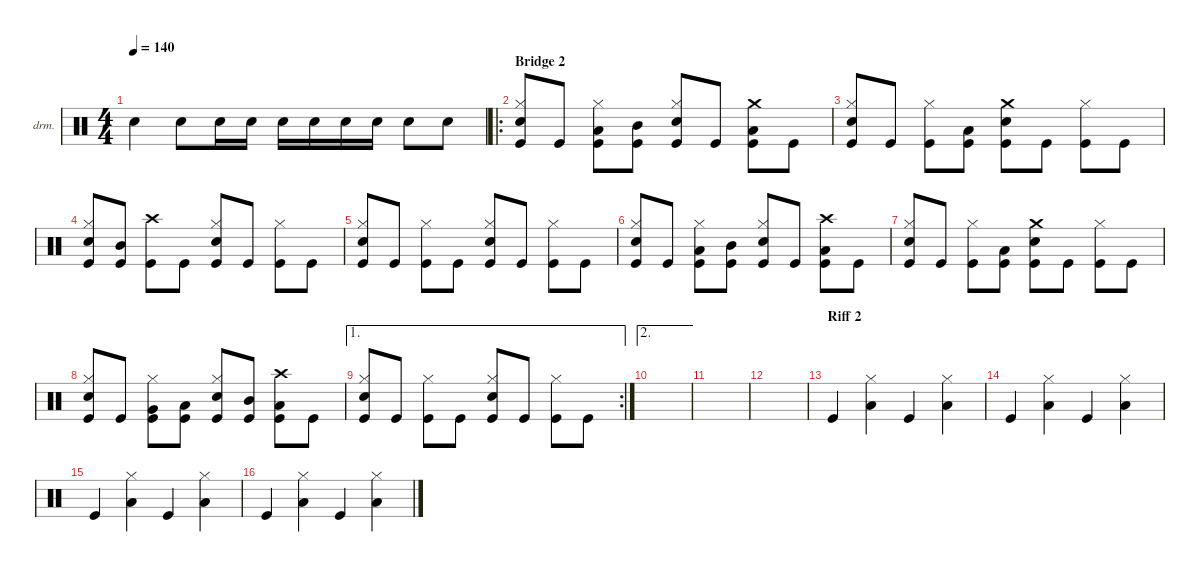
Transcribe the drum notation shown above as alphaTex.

\defaultSystemsLayout 4
\hideDynamics
\bracketExtendMode nobrackets
\firstSystemTrackNameOrientation horizontal
\otherSystemsTrackNameOrientation horizontal
\track ("Drumkit" "drm.") {instrument percussion}
\staff {score}
\articulation defaults
\ts (4 4)
\tempo 140
\clef neutral
\ks c "Snare (hit) 2".4{dy mf} "Snare (hit) 2".8 "Snare (hit) 2".16 "Snare (hit) 2".16 "Snare (hit) 2".16 "Snare (hit) 2".16 "Snare (hit) 2".16 "Snare (hit) 2".16 "Snare (hit) 2".8 "Snare (hit) 2".8
|
\ro
\section ("" "Bridge 2")
("Hi-Hat (closed)" "Kick (hit)" "Snare (hit) 2").8 "Kick (hit)".8 ("Kick (hit)" "Hi-Hat (closed)" "Low Tom (hit)").8 ("Kick (hit)" "Mid Tom (hit)").8 ("Kick (hit)" "Hi-Hat (closed)" "Snare (hit) 2").8 "Kick (hit)".8 ("Kick (hit)" "Low Tom (hit)" "Crash medium (hit)").8 "Kick (hit)".8 |
("Hi-Hat (closed)" "Kick (hit)" "Snare (hit) 2").8 "Kick (hit)".8 ("Kick (hit)" "Hi-Hat (closed)").8 ("Kick (hit)" "Low Tom (hit)").8 ("Kick (hit)" "Snare (hit) 2" "Crash medium (hit)").8 "Kick (hit)".8 ("Kick (hit)" "Hi-Hat (closed)").8 "Kick (hit)".8 |
("Hi-Hat (closed)" "Kick (hit)" "Snare (hit) 2").8 ("Kick (hit)" "Mid Tom (hit)").8 ("Kick (hit)" "Crash high (hit)").8 "Kick (hit)".8 ("Kick (hit)" "Hi-Hat (closed)" "Snare (hit) 2").8 "Kick (hit)".8 ("Kick (hit)" "Hi-Hat (closed)").8 "Kick (hit)".8 |
("Hi-Hat (closed)" "Kick (hit)" "Snare (hit) 2").8 "Kick (hit)".8 ("Kick (hit)" "Hi-Hat (closed)").8 "Kick (hit)".8 ("Kick (hit)" "Hi-Hat (closed)" "Snare (hit) 2").8 "Kick (hit)".8 ("Kick (hit)" "Hi-Hat (closed)").8 "Kick (hit)".8 |
("Hi-Hat (closed)" "Kick (hit)" "Snare (hit) 2").8 "Kick (hit)".8 ("Kick (hit)" "Hi-Hat (closed)" "Low Tom (hit)").8 ("Kick (hit)" "Mid Tom (hit)").8 ("Kick (hit)" "Hi-Hat (closed)" "Snare (hit) 2").8 "Kick (hit)".8 ("Kick (hit)" "Crash high (hit)" "Low Tom (hit)").8 "Kick (hit)".8 |
("Hi-Hat (closed)" "Kick (hit)" "Snare (hit) 2").8 "Kick (hit)".8 ("Kick (hit)" "Hi-Hat (closed)").8 ("Kick (hit)" "Low Tom (hit)").8 ("Kick (hit)" "Snare (hit) 2" "Crash medium (hit)").8 "Kick (hit)".8 ("Kick (hit)" "Hi-Hat (closed)").8 "Kick (hit)".8 |
("Hi-Hat (closed)" "Kick (hit)" "Snare (hit) 2").8 "Kick (hit)".8 ("Kick (hit)" "Hi-Hat (closed)" "Very Low Tom (hit)").8 ("Kick (hit)" "Low Tom (hit)").8 ("Kick (hit)" "Snare (hit) 2" "Hi-Hat (closed)").8 ("Kick (hit)" "Mid Tom (hit)").8 ("Kick (hit)" "Low Tom (hit)" "Crash high (hit)").8 "Kick (hit)".8 |
\ae 1
\rc 2
("Kick (hit)" "Snare (hit) 2" "Hi-Hat (closed)").8 "Kick (hit)".8 ("Kick (hit)" "Hi-Hat (closed)").8 "Kick (hit)".8 ("Kick (hit)" "Snare (hit) 2" "Hi-Hat (closed)").8 "Kick (hit)".8 ("Kick (hit)" "Hi-Hat (closed)").8 "Kick (hit)".8 |
\ae 2
|
|
|
\section ("" "Riff 2")
"Kick (hit)".4 ("Hi-Hat (closed)" "Low Tom (hit)").4 "Kick (hit)".4 ("Hi-Hat (closed)" "Low Tom (hit)").4 |
"Kick (hit)".4 ("Hi-Hat (closed)" "Low Tom (hit)").4 "Kick (hit)".4 ("Hi-Hat (closed)" "Low Tom (hit)").4 |
"Kick (hit)".4 ("Hi-Hat (closed)" "Low Tom (hit)").4 "Kick (hit)".4 ("Hi-Hat (closed)" "Low Tom (hit)").4 |
"Kick (hit)".4 ("Hi-Hat (closed)" "Low Tom (hit)").4 "Kick (hit)".4 ("Hi-Hat (closed)" "Low Tom (hit)").4
